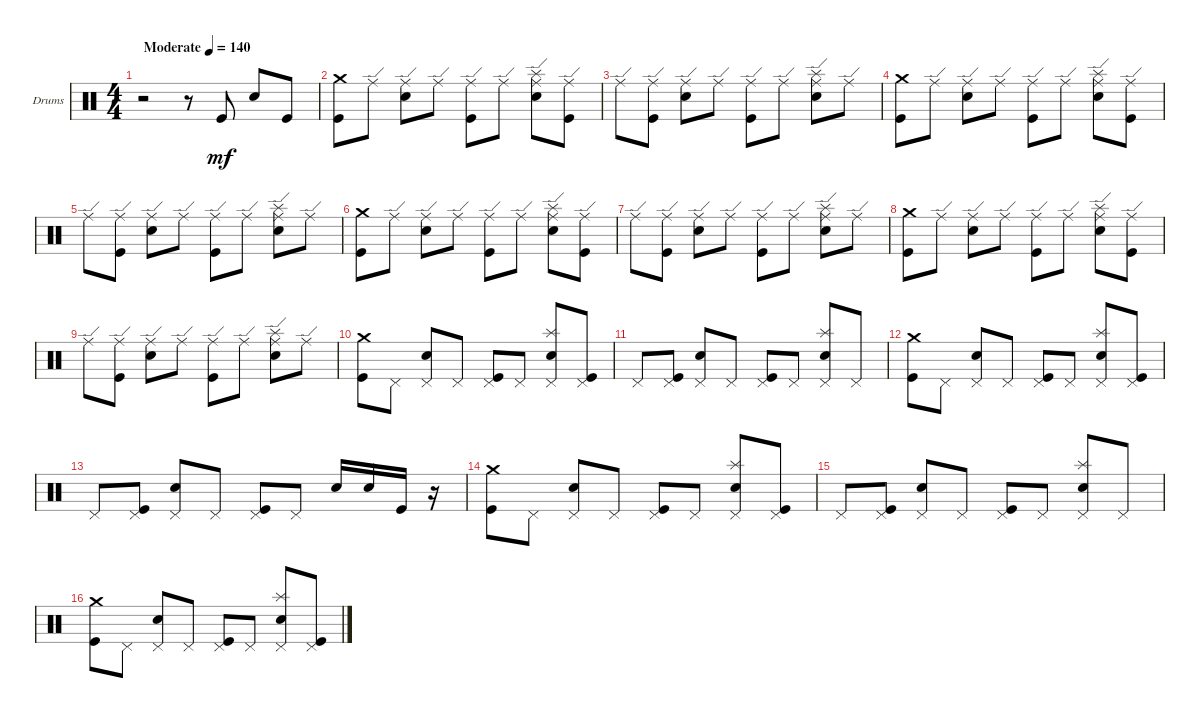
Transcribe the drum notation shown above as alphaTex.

\bracketExtendMode groupsimilarinstruments
\firstSystemTrackNameOrientation horizontal
\otherSystemsTrackNameOrientation horizontal
\track ("Drumkit" "Drums") {instrument percussion}
\staff {score}
\articulation defaults
\ts (4 4)
\beaming (8 2 2 2 2)
\tempo (140 "Moderate")
\clef neutral
\scale
0.472222
\ks c
r.2{dy mf} r.8 "Kick (hit)".8 "Snare (hit) 2".8 "Kick (hit)".8 |
\scale
0.263889 ("Kick (hit)" "Crash medium (hit)").8 "Ride (edge)".8 ("Snare (hit) 2" "Ride (edge)").8 "Ride (edge)".8 ("Kick (hit)" "Ride (edge)").8 "Ride (edge)".8 ("Snare (hit) 2" "Ride (edge)" "Splash (hit)").8 ("Kick (hit)" "Ride (edge)").8 |
\scale
0.263889 "Ride (edge)".8 ("Kick (hit)" "Ride (edge)").8 ("Snare (hit) 2" "Ride (edge)").8 "Ride (edge)".8 ("Kick (hit)" "Ride (edge)").8 "Ride (edge)".8 ("Snare (hit) 2" "Ride (edge)" "Splash (hit)").8 "Ride (edge)".8 |
\scale
0.333333 ("Kick (hit)" "Crash medium (hit)").8 "Ride (edge)".8 ("Snare (hit) 2" "Ride (edge)").8 "Ride (edge)".8 ("Kick (hit)" "Ride (edge)").8 "Ride (edge)".8 ("Snare (hit) 2" "Ride (edge)" "Splash (hit)").8 ("Kick (hit)" "Ride (edge)").8 |
\scale
0.333333 "Ride (edge)".8 ("Kick (hit)" "Ride (edge)").8 ("Snare (hit) 2" "Ride (edge)").8 "Ride (edge)".8 ("Kick (hit)" "Ride (edge)").8 "Ride (edge)".8 ("Snare (hit) 2" "Ride (edge)" "Splash (hit)").8 "Ride (edge)".8 |
\scale
0.333333 ("Kick (hit)" "Crash medium (hit)").8 "Ride (edge)".8 ("Snare (hit) 2" "Ride (edge)").8 "Ride (edge)".8 ("Kick (hit)" "Ride (edge)").8 "Ride (edge)".8 ("Snare (hit) 2" "Ride (edge)" "Splash (hit)").8 ("Kick (hit)" "Ride (edge)").8 |
\scale
0.333333 "Ride (edge)".8 ("Kick (hit)" "Ride (edge)").8 ("Snare (hit) 2" "Ride (edge)").8 "Ride (edge)".8 ("Kick (hit)" "Ride (edge)").8 "Ride (edge)".8 ("Snare (hit) 2" "Ride (edge)" "Splash (hit)").8 "Ride (edge)".8 |
\scale
0.333333 ("Kick (hit)" "Crash medium (hit)").8 "Ride (edge)".8 ("Snare (hit) 2" "Ride (edge)").8 "Ride (edge)".8 ("Kick (hit)" "Ride (edge)").8 "Ride (edge)".8 ("Snare (hit) 2" "Ride (edge)" "Splash (hit)").8 ("Kick (hit)" "Ride (edge)").8 |
\scale
0.333333 "Ride (edge)".8 ("Kick (hit)" "Ride (edge)").8 ("Snare (hit) 2" "Ride (edge)").8 "Ride (edge)".8 ("Kick (hit)" "Ride (edge)").8 "Ride (edge)".8 ("Snare (hit) 2" "Ride (edge)" "Splash (hit)").8 "Ride (edge)".8 |
\scale
0.333333 ("Kick (hit)" "Crash medium (hit)").8 "Pedal Hi-Hat (hit)".8 ("Snare (hit) 2" "Pedal Hi-Hat (hit)").8 "Pedal Hi-Hat (hit)".8 ("Kick (hit)" "Pedal Hi-Hat (hit)").8 "Pedal Hi-Hat (hit)".8 ("Snare (hit) 2" "Pedal Hi-Hat (hit)" "Splash (hit)").8 ("Kick (hit)" "Pedal Hi-Hat (hit)").8 |
\scale
0.333333 "Pedal Hi-Hat (hit)".8 ("Kick (hit)" "Pedal Hi-Hat (hit)").8 ("Snare (hit) 2" "Pedal Hi-Hat (hit)").8 "Pedal Hi-Hat (hit)".8 ("Kick (hit)" "Pedal Hi-Hat (hit)").8 "Pedal Hi-Hat (hit)".8 ("Snare (hit) 2" "Pedal Hi-Hat (hit)" "Splash (hit)").8 "Pedal Hi-Hat (hit)".8 |
\scale
0.333333 ("Kick (hit)" "Crash medium (hit)").8 "Pedal Hi-Hat (hit)".8 ("Snare (hit) 2" "Pedal Hi-Hat (hit)").8 "Pedal Hi-Hat (hit)".8 ("Kick (hit)" "Pedal Hi-Hat (hit)").8 "Pedal Hi-Hat (hit)".8 ("Snare (hit) 2" "Pedal Hi-Hat (hit)" "Splash (hit)").8 ("Kick (hit)" "Pedal Hi-Hat (hit)").8 |
\scale
0.333333 "Pedal Hi-Hat (hit)".8 ("Kick (hit)" "Pedal Hi-Hat (hit)").8 ("Snare (hit) 2" "Pedal Hi-Hat (hit)").8 "Pedal Hi-Hat (hit)".8 ("Kick (hit)" "Pedal Hi-Hat (hit)").8 "Pedal Hi-Hat (hit)".8 "Snare (hit) 2".16 "Snare (hit) 2".16 "Kick (hit)".16 r.16 |
\scale
0.333333 ("Kick (hit)" "Crash medium (hit)").8 "Pedal Hi-Hat (hit)".8 ("Snare (hit) 2" "Pedal Hi-Hat (hit)").8 "Pedal Hi-Hat (hit)".8 ("Kick (hit)" "Pedal Hi-Hat (hit)").8 "Pedal Hi-Hat (hit)".8 ("Snare (hit) 2" "Pedal Hi-Hat (hit)" "Splash (hit)").8 ("Kick (hit)" "Pedal Hi-Hat (hit)").8 |
\scale
0.333333 "Pedal Hi-Hat (hit)".8 ("Kick (hit)" "Pedal Hi-Hat (hit)").8 ("Snare (hit) 2" "Pedal Hi-Hat (hit)").8 "Pedal Hi-Hat (hit)".8 ("Kick (hit)" "Pedal Hi-Hat (hit)").8 "Pedal Hi-Hat (hit)".8 ("Snare (hit) 2" "Pedal Hi-Hat (hit)" "Splash (hit)").8 "Pedal Hi-Hat (hit)".8 |
\scale
0.333333 ("Kick (hit)" "Crash medium (hit)").8 "Pedal Hi-Hat (hit)".8 ("Snare (hit) 2" "Pedal Hi-Hat (hit)").8 "Pedal Hi-Hat (hit)".8 ("Kick (hit)" "Pedal Hi-Hat (hit)").8 "Pedal Hi-Hat (hit)".8 ("Snare (hit) 2" "Pedal Hi-Hat (hit)" "Splash (hit)").8 ("Kick (hit)" "Pedal Hi-Hat (hit)").8
